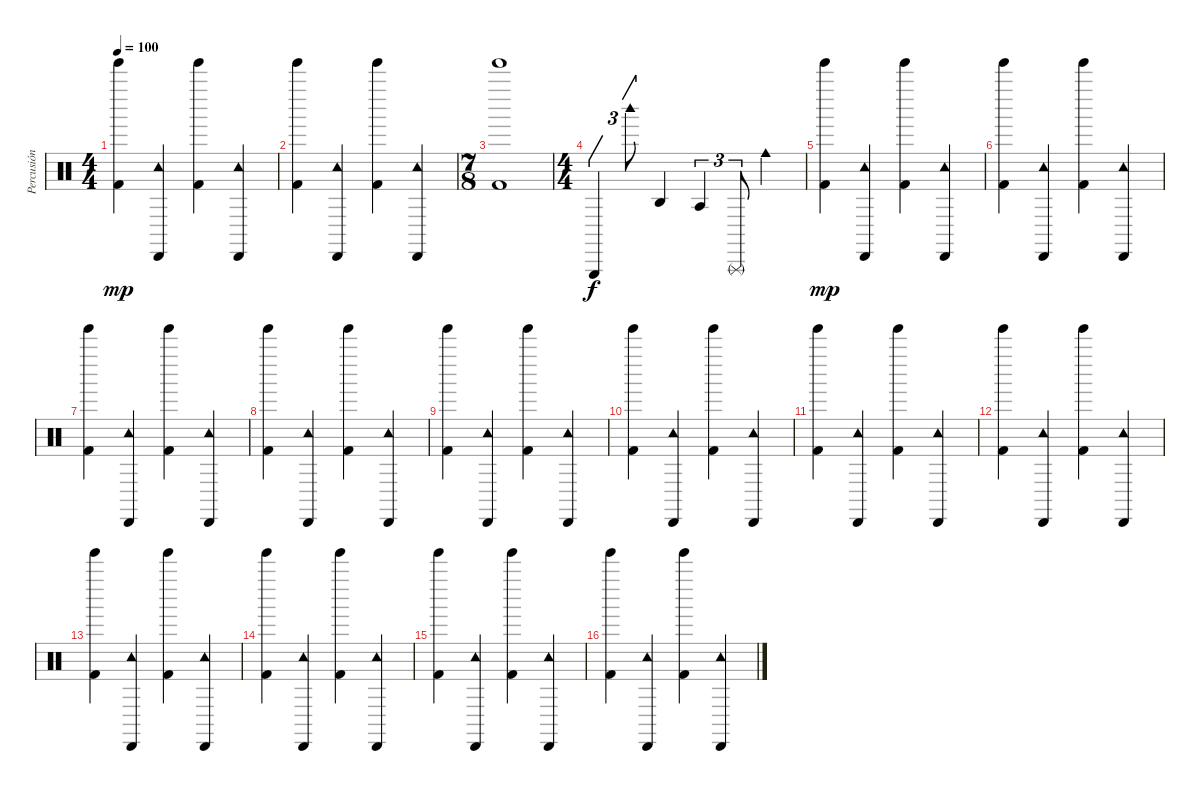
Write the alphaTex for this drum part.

\track ("Percusión" "Percusión") {instrument percussion}
\staff {score}
\articulation defaults
\ts (4 4)
\tempo 100
\clef neutral
\ks c
("Tinkle Bell (hit)" "Kick (hit) 2").4{dy mp} ("Cabasa (hit)" "Tambourine (hit)").4 ("Tinkle Bell (hit)" "Kick (hit) 2").4 ("Cabasa (hit)" "Tambourine (hit)").4 |
("Tinkle Bell (hit)" "Kick (hit) 2").4 ("Cabasa (hit)" "Tambourine (hit)").4 ("Tinkle Bell (hit)" "Kick (hit) 2").4 ("Cabasa (hit)" "Tambourine (hit)").4 |
\ts (7 8)
("Tinkle Bell (hit)" "Kick (hit) 2").1 |
\ts (4 4)
"Triangle (hit)".4{tu (3 2) dy f} "Woodblock high (hit)".8{tu (3 2)} "Agogo high (hit)".4 "Agogo tow (hit)".4{tu (3 2)} "Triangle (rnute)".8{tu (3 2)} "Cowbell medium (hit)".4 |
("Tinkle Bell (hit)" "Kick (hit) 2").4{dy mp} ("Cabasa (hit)" "Tambourine (hit)").4 ("Tinkle Bell (hit)" "Kick (hit) 2").4 ("Cabasa (hit)" "Tambourine (hit)").4 |
("Tinkle Bell (hit)" "Kick (hit) 2").4 ("Cabasa (hit)" "Tambourine (hit)").4 ("Tinkle Bell (hit)" "Kick (hit) 2").4 ("Cabasa (hit)" "Tambourine (hit)").4 |
("Tinkle Bell (hit)" "Kick (hit) 2").4 ("Cabasa (hit)" "Tambourine (hit)").4 ("Tinkle Bell (hit)" "Kick (hit) 2").4 ("Cabasa (hit)" "Tambourine (hit)").4 |
("Tinkle Bell (hit)" "Kick (hit) 2").4 ("Cabasa (hit)" "Tambourine (hit)").4 ("Tinkle Bell (hit)" "Kick (hit) 2").4 ("Cabasa (hit)" "Tambourine (hit)").4 |
("Tinkle Bell (hit)" "Kick (hit) 2").4 ("Cabasa (hit)" "Tambourine (hit)").4 ("Tinkle Bell (hit)" "Kick (hit) 2").4 ("Cabasa (hit)" "Tambourine (hit)").4 |
("Tinkle Bell (hit)" "Kick (hit) 2").4 ("Cabasa (hit)" "Tambourine (hit)").4 ("Tinkle Bell (hit)" "Kick (hit) 2").4 ("Cabasa (hit)" "Tambourine (hit)").4 |
("Tinkle Bell (hit)" "Kick (hit) 2").4 ("Cabasa (hit)" "Tambourine (hit)").4 ("Tinkle Bell (hit)" "Kick (hit) 2").4 ("Cabasa (hit)" "Tambourine (hit)").4 |
("Tinkle Bell (hit)" "Kick (hit) 2").4 ("Cabasa (hit)" "Tambourine (hit)").4 ("Tinkle Bell (hit)" "Kick (hit) 2").4 ("Cabasa (hit)" "Tambourine (hit)").4 |
("Tinkle Bell (hit)" "Kick (hit) 2").4 ("Cabasa (hit)" "Tambourine (hit)").4 ("Tinkle Bell (hit)" "Kick (hit) 2").4 ("Cabasa (hit)" "Tambourine (hit)").4 |
("Tinkle Bell (hit)" "Kick (hit) 2").4 ("Cabasa (hit)" "Tambourine (hit)").4 ("Tinkle Bell (hit)" "Kick (hit) 2").4 ("Cabasa (hit)" "Tambourine (hit)").4 |
("Tinkle Bell (hit)" "Kick (hit) 2").4 ("Cabasa (hit)" "Tambourine (hit)").4 ("Tinkle Bell (hit)" "Kick (hit) 2").4 ("Cabasa (hit)" "Tambourine (hit)").4 |
("Tinkle Bell (hit)" "Kick (hit) 2").4 ("Cabasa (hit)" "Tambourine (hit)").4 ("Tinkle Bell (hit)" "Kick (hit) 2").4 ("Cabasa (hit)" "Tambourine (hit)").4
